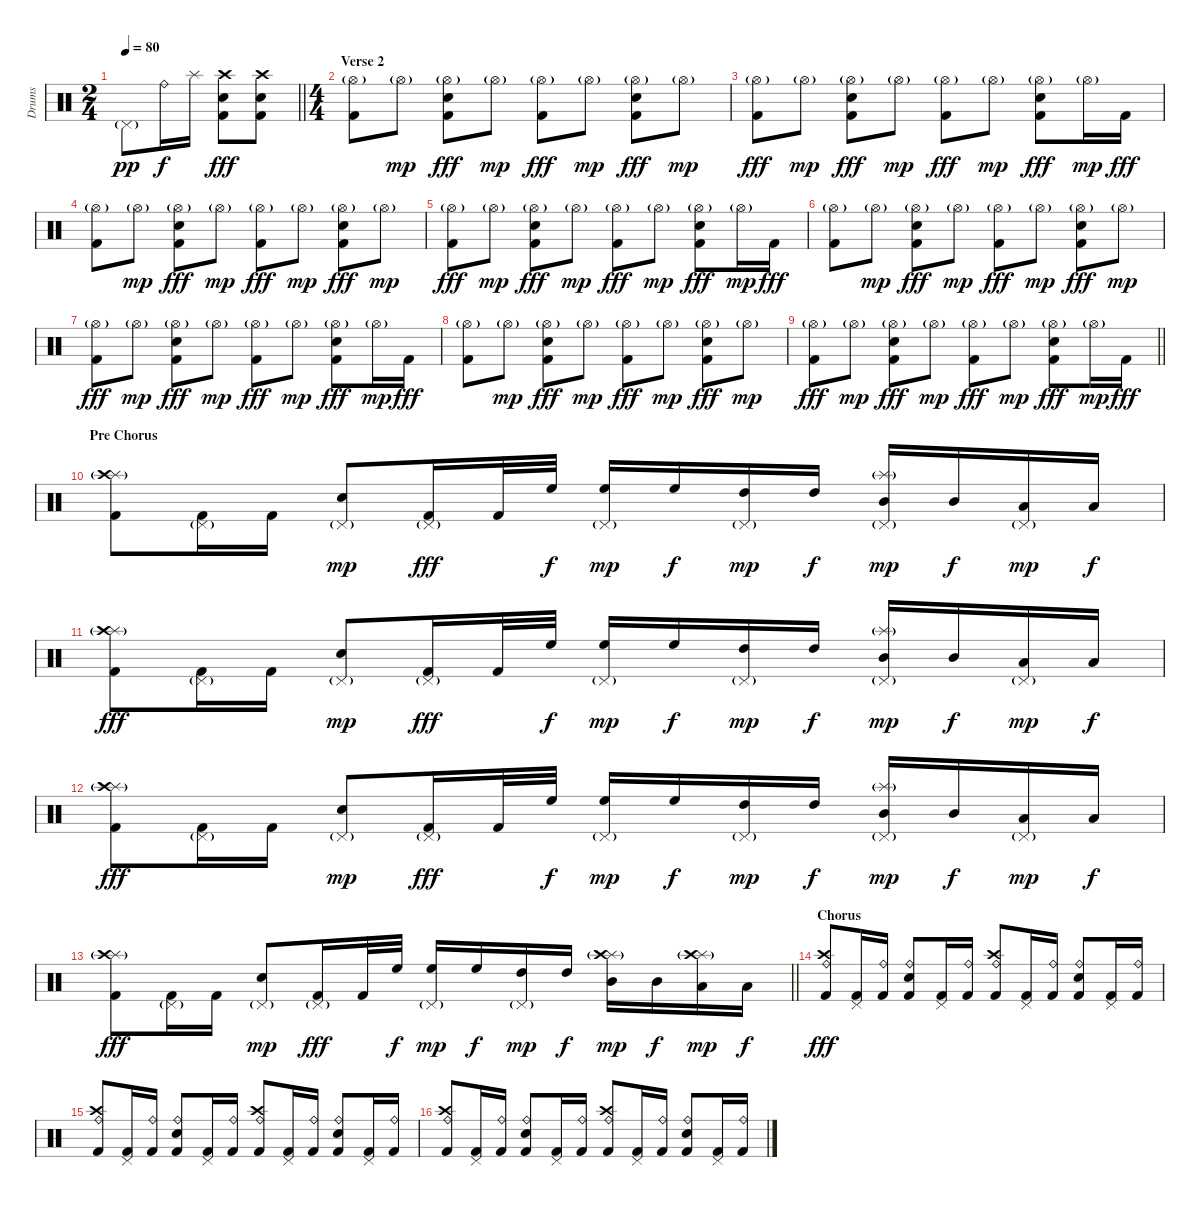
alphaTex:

\track ("Drums" "Drums") {instrument percussion}
\staff {score}
\articulation defaults
\ts (2 4)
\tempo 80
\clef neutral
\barLineRight lightlight
\ks c "Pedal Hi-Hat (hit)"{g}.8{dy pp} "Ride (bell)".16{dy f} "Splash (hit)".16
("Crash high (hit)" "Electric Snare (hit)" "Kick (hit) 2").8{dy fff} ("Crash high (hit)" "Electric Snare (hit)" "Kick (hit) 2").8 |
\ts (4 4)
\section ("" "Verse 2")
("Hi-Hat (open)"{g} "Kick (hit) 2").8 "Hi-Hat (open)"{g}.8{dy mp} ("Hi-Hat (open)"{g} "Snare (hit) 2" "Kick (hit) 2").8{dy fff} "Hi-Hat (open)"{g}.8{dy mp} ("Hi-Hat (open)"{g} "Kick (hit) 2").8{dy fff} "Hi-Hat (open)"{g}.8{dy mp} ("Hi-Hat (open)"{g} "Snare (hit) 2" "Kick (hit) 2").8{dy fff} "Hi-Hat (open)"{g}.8{dy mp} |
("Hi-Hat (open)"{g} "Kick (hit) 2").8{dy fff} "Hi-Hat (open)"{g}.8{dy mp} ("Hi-Hat (open)"{g} "Snare (hit) 2" "Kick (hit) 2").8{dy fff} "Hi-Hat (open)"{g}.8{dy mp} ("Hi-Hat (open)"{g} "Kick (hit) 2").8{dy fff} "Hi-Hat (open)"{g}.8{dy mp} ("Hi-Hat (open)"{g} "Snare (hit) 2" "Kick (hit) 2").8{dy fff} "Hi-Hat (open)"{g}.16{dy mp} "Kick (hit) 2".16{dy fff} |
("Hi-Hat (open)"{g} "Kick (hit) 2").8 "Hi-Hat (open)"{g}.8{dy mp} ("Hi-Hat (open)"{g} "Snare (hit) 2" "Kick (hit) 2").8{dy fff} "Hi-Hat (open)"{g}.8{dy mp} ("Hi-Hat (open)"{g} "Kick (hit) 2").8{dy fff} "Hi-Hat (open)"{g}.8{dy mp} ("Hi-Hat (open)"{g} "Snare (hit) 2" "Kick (hit) 2").8{dy fff} "Hi-Hat (open)"{g}.8{dy mp} |
("Hi-Hat (open)"{g} "Kick (hit) 2").8{dy fff} "Hi-Hat (open)"{g}.8{dy mp} ("Hi-Hat (open)"{g} "Snare (hit) 2" "Kick (hit) 2").8{dy fff} "Hi-Hat (open)"{g}.8{dy mp} ("Hi-Hat (open)"{g} "Kick (hit) 2").8{dy fff} "Hi-Hat (open)"{g}.8{dy mp} ("Hi-Hat (open)"{g} "Snare (hit) 2" "Kick (hit) 2").8{dy fff} "Hi-Hat (open)"{g}.16{dy mp} "Kick (hit) 2".16{dy fff} |
("Hi-Hat (open)"{g} "Kick (hit) 2").8 "Hi-Hat (open)"{g}.8{dy mp} ("Hi-Hat (open)"{g} "Snare (hit) 2" "Kick (hit) 2").8{dy fff} "Hi-Hat (open)"{g}.8{dy mp} ("Hi-Hat (open)"{g} "Kick (hit) 2").8{dy fff} "Hi-Hat (open)"{g}.8{dy mp} ("Hi-Hat (open)"{g} "Snare (hit) 2" "Kick (hit) 2").8{dy fff} "Hi-Hat (open)"{g}.8{dy mp} |
("Hi-Hat (open)"{g} "Kick (hit) 2").8{dy fff} "Hi-Hat (open)"{g}.8{dy mp} ("Hi-Hat (open)"{g} "Snare (hit) 2" "Kick (hit) 2").8{dy fff} "Hi-Hat (open)"{g}.8{dy mp} ("Hi-Hat (open)"{g} "Kick (hit) 2").8{dy fff} "Hi-Hat (open)"{g}.8{dy mp} ("Hi-Hat (open)"{g} "Snare (hit) 2" "Kick (hit) 2").8{dy fff} "Hi-Hat (open)"{g}.16{dy mp} "Kick (hit) 2".16{dy fff} |
("Hi-Hat (open)"{g} "Kick (hit) 2").8 "Hi-Hat (open)"{g}.8{dy mp} ("Hi-Hat (open)"{g} "Snare (hit) 2" "Kick (hit) 2").8{dy fff} "Hi-Hat (open)"{g}.8{dy mp} ("Hi-Hat (open)"{g} "Kick (hit) 2").8{dy fff} "Hi-Hat (open)"{g}.8{dy mp} ("Hi-Hat (open)"{g} "Snare (hit) 2" "Kick (hit) 2").8{dy fff} "Hi-Hat (open)"{g}.8{dy mp} |
\barLineRight lightlight
("Hi-Hat (open)"{g} "Kick (hit) 2").8{dy fff} "Hi-Hat (open)"{g}.8{dy mp} ("Hi-Hat (open)"{g} "Snare (hit) 2" "Kick (hit) 2").8{dy fff} "Hi-Hat (open)"{g}.8{dy mp} ("Hi-Hat (open)"{g} "Kick (hit) 2").8{dy fff} "Hi-Hat (open)"{g}.8{dy mp} ("Hi-Hat (open)"{g} "Snare (hit) 2" "Kick (hit) 2").8{dy fff} "Hi-Hat (open)"{g}.16{dy mp} "Kick (hit) 2".16{dy fff} |
\section ("" "Pre Chorus")
("Splash (hit)"{g} "Crash high (hit)" "Kick (hit) 2").8 ("Pedal Hi-Hat (hit)"{g} "Kick (hit) 2").16 "Kick (hit) 2".16 ("Pedal Hi-Hat (hit)"{g} "Electric Snare (hit)").8{dy mp} ("Pedal Hi-Hat (hit)"{g} "Kick (hit) 2").16{dy fff} "Kick (hit) 2".32 "High Floor Tom (hit)".32{dy f} ("Pedal Hi-Hat (hit)"{g} "High Floor Tom (hit)").16{dy mp} "High Floor Tom (hit)".16{dy f} ("Pedal Hi-Hat (hit)"{g} "High Tom (hit)").16{dy mp} "High Tom (hit)".16{dy f} ("Splash (hit)"{g} "Pedal Hi-Hat (hit)"{g} "Mid Tom (hit)").16{dy mp} "Mid Tom (hit)".16{dy f} ("Pedal Hi-Hat (hit)"{g} "Low Tom (hit)").16{dy mp} "Low Tom (hit)".16{dy f} |
("Splash (hit)"{g} "Crash high (hit)" "Kick (hit) 2").8{dy fff} ("Pedal Hi-Hat (hit)"{g} "Kick (hit) 2").16 "Kick (hit) 2".16 ("Pedal Hi-Hat (hit)"{g} "Electric Snare (hit)").8{dy mp} ("Pedal Hi-Hat (hit)"{g} "Kick (hit) 2").16{dy fff} "Kick (hit) 2".32 "High Floor Tom (hit)".32{dy f} ("Pedal Hi-Hat (hit)"{g} "High Floor Tom (hit)").16{dy mp} "High Floor Tom (hit)".16{dy f} ("Pedal Hi-Hat (hit)"{g} "High Tom (hit)").16{dy mp} "High Tom (hit)".16{dy f} ("Splash (hit)"{g} "Pedal Hi-Hat (hit)"{g} "Mid Tom (hit)").16{dy mp} "Mid Tom (hit)".16{dy f} ("Pedal Hi-Hat (hit)"{g} "Low Tom (hit)").16{dy mp} "Low Tom (hit)".16{dy f} |
("Splash (hit)"{g} "Crash high (hit)" "Kick (hit) 2").8{dy fff} ("Pedal Hi-Hat (hit)"{g} "Kick (hit) 2").16 "Kick (hit) 2".16 ("Pedal Hi-Hat (hit)"{g} "Electric Snare (hit)").8{dy mp} ("Pedal Hi-Hat (hit)"{g} "Kick (hit) 2").16{dy fff} "Kick (hit) 2".32 "High Floor Tom (hit)".32{dy f} ("Pedal Hi-Hat (hit)"{g} "High Floor Tom (hit)").16{dy mp} "High Floor Tom (hit)".16{dy f} ("Pedal Hi-Hat (hit)"{g} "High Tom (hit)").16{dy mp} "High Tom (hit)".16{dy f} ("Splash (hit)"{g} "Pedal Hi-Hat (hit)"{g} "Mid Tom (hit)").16{dy mp} "Mid Tom (hit)".16{dy f} ("Pedal Hi-Hat (hit)"{g} "Low Tom (hit)").16{dy mp} "Low Tom (hit)".16{dy f} |
\barLineRight lightlight
("Splash (hit)"{g} "Crash high (hit)" "Kick (hit) 2").8{dy fff} ("Pedal Hi-Hat (hit)"{g} "Kick (hit) 2").16 "Kick (hit) 2".16 ("Pedal Hi-Hat (hit)"{g} "Electric Snare (hit)").8{dy mp} ("Pedal Hi-Hat (hit)"{g} "Kick (hit) 2").16{dy fff} "Kick (hit) 2".32 "High Floor Tom (hit)".32{dy f} ("Pedal Hi-Hat (hit)"{g} "High Floor Tom (hit)").16{dy mp} "High Floor Tom (hit)".16{dy f} ("Pedal Hi-Hat (hit)"{g} "High Tom (hit)").16{dy mp} "High Tom (hit)".16{dy f} ("Splash (hit)"{g} "Crash high (hit)"{g} "Mid Tom (hit)").16{dy mp} "Mid Tom (hit)".16{dy f} ("Splash (hit)"{g} "Crash high (hit)"{g} "Low Tom (hit)").16{dy mp} "Low Tom (hit)".16{dy f} |
\section ("" "Chorus")
("Crash high (hit)" "Ride (bell)" "Kick (hit) 2").8{dy fff} ("Pedal Hi-Hat (hit)" "Kick (hit) 2").16 ("Ride (bell)" "Kick (hit) 2").16 ("Ride (bell)" "Electric Snare (hit)" "Kick (hit) 2").8 ("Pedal Hi-Hat (hit)" "Kick (hit) 2").16 ("Ride (bell)" "Kick (hit) 2").16 ("Crash high (hit)" "Ride (bell)" "Kick (hit) 2").8 ("Pedal Hi-Hat (hit)" "Kick (hit) 2").16 ("Ride (bell)" "Kick (hit) 2").16 ("Ride (bell)" "Electric Snare (hit)" "Kick (hit) 2").8 ("Pedal Hi-Hat (hit)" "Kick (hit) 2").16 ("Ride (bell)" "Kick (hit) 2").16 |
("Crash high (hit)" "Ride (bell)" "Kick (hit) 2").8 ("Pedal Hi-Hat (hit)" "Kick (hit) 2").16 ("Ride (bell)" "Kick (hit) 2").16 ("Ride (bell)" "Electric Snare (hit)" "Kick (hit) 2").8 ("Pedal Hi-Hat (hit)" "Kick (hit) 2").16 ("Ride (bell)" "Kick (hit) 2").16 ("Crash high (hit)" "Ride (bell)" "Kick (hit) 2").8 ("Pedal Hi-Hat (hit)" "Kick (hit) 2").16 ("Ride (bell)" "Kick (hit) 2").16 ("Ride (bell)" "Electric Snare (hit)" "Kick (hit) 2").8 ("Pedal Hi-Hat (hit)" "Kick (hit) 2").16 ("Ride (bell)" "Kick (hit) 2").16 |
("Crash high (hit)" "Ride (bell)" "Kick (hit) 2").8 ("Pedal Hi-Hat (hit)" "Kick (hit) 2").16 ("Ride (bell)" "Kick (hit) 2").16 ("Ride (bell)" "Electric Snare (hit)" "Kick (hit) 2").8 ("Pedal Hi-Hat (hit)" "Kick (hit) 2").16 ("Ride (bell)" "Kick (hit) 2").16 ("Crash high (hit)" "Ride (bell)" "Kick (hit) 2").8 ("Pedal Hi-Hat (hit)" "Kick (hit) 2").16 ("Ride (bell)" "Kick (hit) 2").16 ("Ride (bell)" "Electric Snare (hit)" "Kick (hit) 2").8 ("Pedal Hi-Hat (hit)" "Kick (hit) 2").16 ("Ride (bell)" "Kick (hit) 2").16
